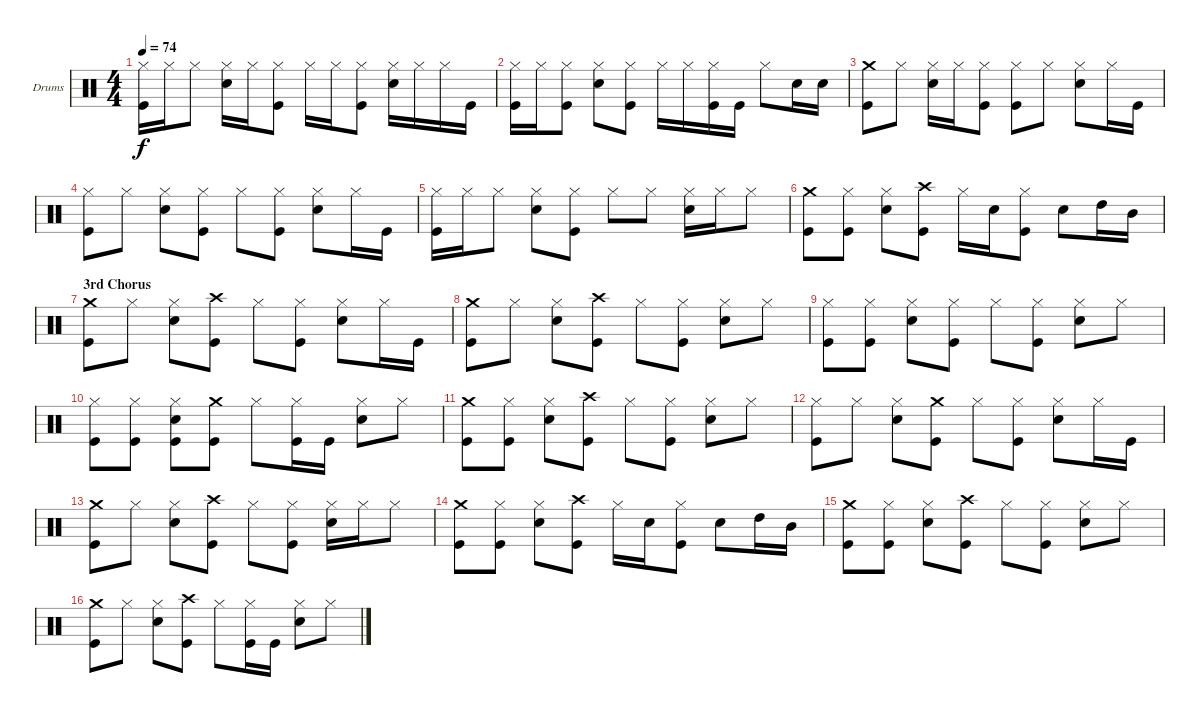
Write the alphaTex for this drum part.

\bracketExtendMode groupsimilarinstruments
\firstSystemTrackNameOrientation horizontal
\otherSystemsTrackNameOrientation horizontal
\track ("Drumkit" "Drums") {instrument percussion}
\staff {score}
\articulation defaults
\ts (4 4)
\tempo 74
\clef neutral
\ks c
("Hi-Hat (closed)" "Kick (hit)").16{dy f} "Hi-Hat (closed)".16 "Hi-Hat (closed)".8 ("Hi-Hat (closed)" "Snare (hit) 2").16 "Hi-Hat (closed)".16 ("Hi-Hat (closed)" "Kick (hit)").8 "Hi-Hat (closed)".16 "Hi-Hat (closed)".16 ("Hi-Hat (closed)" "Kick (hit)").8 ("Hi-Hat (closed)" "Snare (hit) 2").16 "Hi-Hat (closed)".16 "Hi-Hat (closed)".16 "Kick (hit)".16 |
("Hi-Hat (closed)" "Kick (hit)").16 "Hi-Hat (closed)".16 ("Hi-Hat (closed)" "Kick (hit)").8 ("Hi-Hat (closed)" "Snare (hit) 2").8 ("Hi-Hat (closed)" "Kick (hit)").8 "Hi-Hat (closed)".16 "Hi-Hat (closed)".16 ("Hi-Hat (closed)" "Kick (hit)").16 "Kick (hit)".16 "Hi-Hat (closed)".8 "Snare (hit) 2".16 "Snare (hit) 2".16 |
("Crash medium (hit)" "Kick (hit)").8 "Hi-Hat (closed)".8 ("Hi-Hat (closed)" "Snare (hit) 2").16 "Hi-Hat (closed)".16 ("Hi-Hat (closed)" "Kick (hit)").8 ("Hi-Hat (closed)" "Kick (hit)").8 "Hi-Hat (closed)".8 ("Hi-Hat (closed)" "Snare (hit) 2").8 "Hi-Hat (closed)".16 "Kick (hit)".16 |
("Hi-Hat (closed)" "Kick (hit)").8 "Hi-Hat (closed)".8 ("Hi-Hat (closed)" "Snare (hit) 2").8 ("Hi-Hat (closed)" "Kick (hit)").8 "Hi-Hat (closed)".8 ("Hi-Hat (closed)" "Kick (hit)").8 ("Hi-Hat (closed)" "Snare (hit) 2").8 "Hi-Hat (closed)".16 "Kick (hit)".16 |
("Hi-Hat (closed)" "Kick (hit)").16 "Hi-Hat (closed)".16 "Hi-Hat (closed)".8 ("Hi-Hat (closed)" "Snare (hit) 2").8 ("Hi-Hat (closed)" "Kick (hit)").8 "Hi-Hat (closed)".8 "Hi-Hat (closed)".8 ("Hi-Hat (closed)" "Snare (hit) 2").16 "Hi-Hat (closed)".16 "Hi-Hat (closed)".8 |
("Crash medium (hit)" "Kick (hit)").8 ("Hi-Hat (closed)" "Kick (hit)").8 ("Hi-Hat (closed)" "Snare (hit) 2").8 ("Crash high (hit)" "Kick (hit)").8 "Hi-Hat (closed)".16 "Snare (hit) 2".16 ("Hi-Hat (closed)" "Kick (hit)").8 "Snare (hit) 2".8 "High Tom (hit)".16 "Mid Tom (hit)".16 |
\section ("" "3rd Chorus")
("Crash medium (hit)" "Kick (hit)").8 "Hi-Hat (closed)".8 ("Hi-Hat (closed)" "Snare (hit) 2").8 ("Crash high (hit)" "Kick (hit)").8 "Hi-Hat (closed)".8 ("Hi-Hat (closed)" "Kick (hit)").8 ("Hi-Hat (closed)" "Snare (hit) 2").8 "Hi-Hat (closed)".16 "Kick (hit)".16 |
("Crash medium (hit)" "Kick (hit)").8 "Hi-Hat (closed)".8 ("Hi-Hat (closed)" "Snare (hit) 2").8 ("Crash high (hit)" "Kick (hit)").8 "Hi-Hat (closed)".8 ("Hi-Hat (closed)" "Kick (hit)").8 ("Hi-Hat (closed)" "Snare (hit) 2").8 "Hi-Hat (closed)".8 |
("Hi-Hat (closed)" "Kick (hit)").8 ("Hi-Hat (closed)" "Kick (hit)").8 ("Hi-Hat (closed)" "Snare (hit) 2").8 ("Hi-Hat (closed)" "Kick (hit)").8 "Hi-Hat (closed)".8 ("Hi-Hat (closed)" "Kick (hit)").8 ("Hi-Hat (closed)" "Snare (hit) 2").8 "Hi-Hat (closed)".8 |
("Hi-Hat (closed)" "Kick (hit)").8 ("Hi-Hat (closed)" "Kick (hit)").8 ("Hi-Hat (closed)" "Snare (hit) 2" "Kick (hit)").8 ("Crash medium (hit)" "Kick (hit)").8 "Hi-Hat (closed)".8 ("Hi-Hat (closed)" "Kick (hit)").16 "Kick (hit)".16 ("Hi-Hat (closed)" "Snare (hit) 2").8 "Hi-Hat (closed)".8 |
("Crash medium (hit)" "Kick (hit)").8 ("Hi-Hat (closed)" "Kick (hit)").8 ("Hi-Hat (closed)" "Snare (hit) 2").8 ("Crash high (hit)" "Kick (hit)").8 "Hi-Hat (closed)".8 ("Hi-Hat (closed)" "Kick (hit)").8 ("Hi-Hat (closed)" "Snare (hit) 2").8 "Hi-Hat (closed)".8 |
("Hi-Hat (closed)" "Kick (hit)").8 "Hi-Hat (closed)".8 ("Hi-Hat (closed)" "Snare (hit) 2").8 ("Crash medium (hit)" "Kick (hit)").8 "Hi-Hat (closed)".8 ("Hi-Hat (closed)" "Kick (hit)").8 ("Hi-Hat (closed)" "Snare (hit) 2").8 "Hi-Hat (closed)".16 "Kick (hit)".16 |
("Crash medium (hit)" "Kick (hit)").8 "Hi-Hat (closed)".8 ("Hi-Hat (closed)" "Snare (hit) 2").8 ("Crash high (hit)" "Kick (hit)").8 "Hi-Hat (closed)".8 ("Hi-Hat (closed)" "Kick (hit)").8 ("Hi-Hat (closed)" "Snare (hit) 2").16 "Hi-Hat (closed)".16 "Hi-Hat (closed)".8 |
("Crash medium (hit)" "Kick (hit)").8 ("Hi-Hat (closed)" "Kick (hit)").8 ("Hi-Hat (closed)" "Snare (hit) 2").8 ("Crash high (hit)" "Kick (hit)").8 "Hi-Hat (closed)".16 "Snare (hit) 2".16 ("Hi-Hat (closed)" "Kick (hit)").8 "Snare (hit) 2".8 "High Tom (hit)".16 "Mid Tom (hit)".16 |
("Crash medium (hit)" "Kick (hit)").8 ("Hi-Hat (closed)" "Kick (hit)").8 ("Hi-Hat (closed)" "Snare (hit) 2").8 ("Crash high (hit)" "Kick (hit)").8 "Hi-Hat (closed)".8 ("Hi-Hat (closed)" "Kick (hit)").8 ("Hi-Hat (closed)" "Snare (hit) 2").8 "Hi-Hat (closed)".8 |
("Crash medium (hit)" "Kick (hit)").8 "Hi-Hat (closed)".8 ("Hi-Hat (closed)" "Snare (hit) 2").8 ("Crash high (hit)" "Kick (hit)").8 "Hi-Hat (closed)".8 ("Hi-Hat (closed)" "Kick (hit)").16 "Kick (hit)".16 ("Hi-Hat (closed)" "Snare (hit) 2").8 "Hi-Hat (closed)".8
